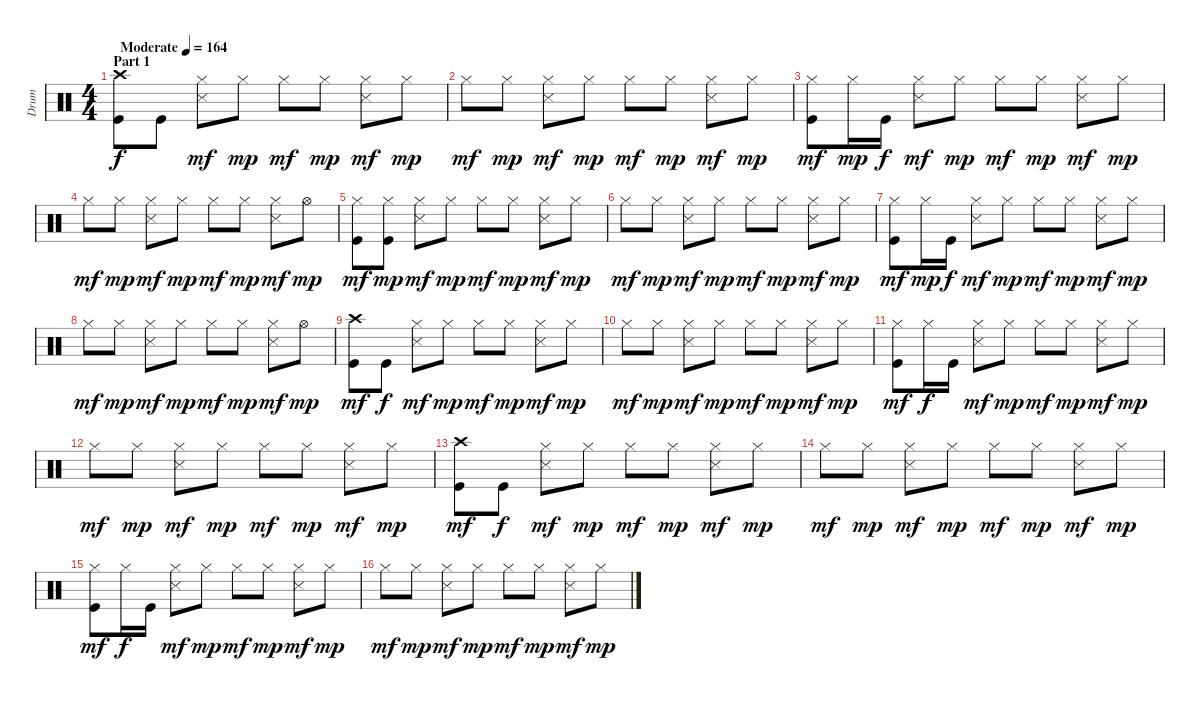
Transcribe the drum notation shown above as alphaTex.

\track ("Drum" "Drum") {instrument percussion}
\staff {score}
\articulation defaults
\ts (4 4)
\section ("" "Part 1")
\tempo (164 "Moderate")
\clef neutral
\ks c
("Crash high (hit)" "Kick (hit)").8{dy f} "Kick (hit)".8 ("Snare (side stick) 3" "Hi-Hat (closed)").8{dy mf} "Hi-Hat (closed)".8{dy mp} "Hi-Hat (closed)".8{dy mf} "Hi-Hat (closed)".8{dy mp} ("Snare (side stick) 3" "Hi-Hat (closed)").8{dy mf} "Hi-Hat (closed)".8{dy mp} |
"Hi-Hat (closed)".8{dy mf} "Hi-Hat (closed)".8{dy mp} ("Snare (side stick) 3" "Hi-Hat (closed)").8{dy mf} "Hi-Hat (closed)".8{dy mp} "Hi-Hat (closed)".8{dy mf} "Hi-Hat (closed)".8{dy mp} ("Snare (side stick) 3" "Hi-Hat (closed)").8{dy mf} "Hi-Hat (closed)".8{dy mp} |
("Hi-Hat (closed)" "Kick (hit)").8{dy mf} "Hi-Hat (closed)".16{dy mp} "Kick (hit)".16{dy f} ("Snare (side stick) 3" "Hi-Hat (closed)").8{dy mf} "Hi-Hat (closed)".8{dy mp} "Hi-Hat (closed)".8{dy mf} "Hi-Hat (closed)".8{dy mp} ("Snare (side stick) 3" "Hi-Hat (closed)").8{dy mf} "Hi-Hat (closed)".8{dy mp} |
"Hi-Hat (closed)".8{dy mf} "Hi-Hat (closed)".8{dy mp} ("Snare (side stick) 3" "Hi-Hat (closed)").8{dy mf} "Hi-Hat (closed)".8{dy mp} "Hi-Hat (closed)".8{dy mf} "Hi-Hat (closed)".8{dy mp} ("Snare (side stick) 3" "Hi-Hat (closed)").8{dy mf} "Hi-Hat (open)".8{dy mp} |
("Hi-Hat (closed)" "Kick (hit)").8{dy mf} ("Hi-Hat (closed)" "Kick (hit)").8{dy mp} ("Snare (side stick) 3" "Hi-Hat (closed)").8{dy mf} "Hi-Hat (closed)".8{dy mp} "Hi-Hat (closed)".8{dy mf} "Hi-Hat (closed)".8{dy mp} ("Snare (side stick) 3" "Hi-Hat (closed)").8{dy mf} "Hi-Hat (closed)".8{dy mp} |
"Hi-Hat (closed)".8{dy mf} "Hi-Hat (closed)".8{dy mp} ("Snare (side stick) 3" "Hi-Hat (closed)").8{dy mf} "Hi-Hat (closed)".8{dy mp} "Hi-Hat (closed)".8{dy mf} "Hi-Hat (closed)".8{dy mp} ("Snare (side stick) 3" "Hi-Hat (closed)").8{dy mf} "Hi-Hat (closed)".8{dy mp} |
("Hi-Hat (closed)" "Kick (hit)").8{dy mf} "Hi-Hat (closed)".16{dy mp} "Kick (hit)".16{dy f} ("Snare (side stick) 3" "Hi-Hat (closed)").8{dy mf} "Hi-Hat (closed)".8{dy mp} "Hi-Hat (closed)".8{dy mf} "Hi-Hat (closed)".8{dy mp} ("Snare (side stick) 3" "Hi-Hat (closed)").8{dy mf} "Hi-Hat (closed)".8{dy mp} |
"Hi-Hat (closed)".8{dy mf} "Hi-Hat (closed)".8{dy mp} ("Snare (side stick) 3" "Hi-Hat (closed)").8{dy mf} "Hi-Hat (closed)".8{dy mp} "Hi-Hat (closed)".8{dy mf} "Hi-Hat (closed)".8{dy mp} ("Snare (side stick) 3" "Hi-Hat (closed)").8{dy mf} "Hi-Hat (open)".8{dy mp} |
("Crash high (hit)" "Kick (hit)").8{dy mf} "Kick (hit)".8{dy f} ("Snare (side stick) 3" "Hi-Hat (closed)").8{dy mf} "Hi-Hat (closed)".8{dy mp} "Hi-Hat (closed)".8{dy mf} "Hi-Hat (closed)".8{dy mp} ("Snare (side stick) 3" "Hi-Hat (closed)").8{dy mf} "Hi-Hat (closed)".8{dy mp} |
"Hi-Hat (closed)".8{dy mf} "Hi-Hat (closed)".8{dy mp} ("Snare (side stick) 3" "Hi-Hat (closed)").8{dy mf} "Hi-Hat (closed)".8{dy mp} "Hi-Hat (closed)".8{dy mf} "Hi-Hat (closed)".8{dy mp} ("Snare (side stick) 3" "Hi-Hat (closed)").8{dy mf} "Hi-Hat (closed)".8{dy mp} |
("Hi-Hat (closed)" "Kick (hit)").8{dy mf} "Hi-Hat (closed)".16{dy f} "Kick (hit)".16 ("Snare (side stick) 3" "Hi-Hat (closed)").8{dy mf} "Hi-Hat (closed)".8{dy mp} "Hi-Hat (closed)".8{dy mf} "Hi-Hat (closed)".8{dy mp} ("Snare (side stick) 3" "Hi-Hat (closed)").8{dy mf} "Hi-Hat (closed)".8{dy mp} |
"Hi-Hat (closed)".8{dy mf} "Hi-Hat (closed)".8{dy mp} ("Snare (side stick) 3" "Hi-Hat (closed)").8{dy mf} "Hi-Hat (closed)".8{dy mp} "Hi-Hat (closed)".8{dy mf} "Hi-Hat (closed)".8{dy mp} ("Snare (side stick) 3" "Hi-Hat (closed)").8{dy mf} "Hi-Hat (closed)".8{dy mp} |
("Crash high (hit)" "Kick (hit)").8{dy mf} "Kick (hit)".8{dy f} ("Snare (side stick) 3" "Hi-Hat (closed)").8{dy mf} "Hi-Hat (closed)".8{dy mp} "Hi-Hat (closed)".8{dy mf} "Hi-Hat (closed)".8{dy mp} ("Snare (side stick) 3" "Hi-Hat (closed)").8{dy mf} "Hi-Hat (closed)".8{dy mp} |
"Hi-Hat (closed)".8{dy mf} "Hi-Hat (closed)".8{dy mp} ("Snare (side stick) 3" "Hi-Hat (closed)").8{dy mf} "Hi-Hat (closed)".8{dy mp} "Hi-Hat (closed)".8{dy mf} "Hi-Hat (closed)".8{dy mp} ("Snare (side stick) 3" "Hi-Hat (closed)").8{dy mf} "Hi-Hat (closed)".8{dy mp} |
("Hi-Hat (closed)" "Kick (hit)").8{dy mf} "Hi-Hat (closed)".16{dy f} "Kick (hit)".16 ("Snare (side stick) 3" "Hi-Hat (closed)").8{dy mf} "Hi-Hat (closed)".8{dy mp} "Hi-Hat (closed)".8{dy mf} "Hi-Hat (closed)".8{dy mp} ("Snare (side stick) 3" "Hi-Hat (closed)").8{dy mf} "Hi-Hat (closed)".8{dy mp} |
"Hi-Hat (closed)".8{dy mf} "Hi-Hat (closed)".8{dy mp} ("Snare (side stick) 3" "Hi-Hat (closed)").8{dy mf} "Hi-Hat (closed)".8{dy mp} "Hi-Hat (closed)".8{dy mf} "Hi-Hat (closed)".8{dy mp} ("Snare (side stick) 3" "Hi-Hat (closed)").8{dy mf} "Hi-Hat (closed)".8{dy mp}
